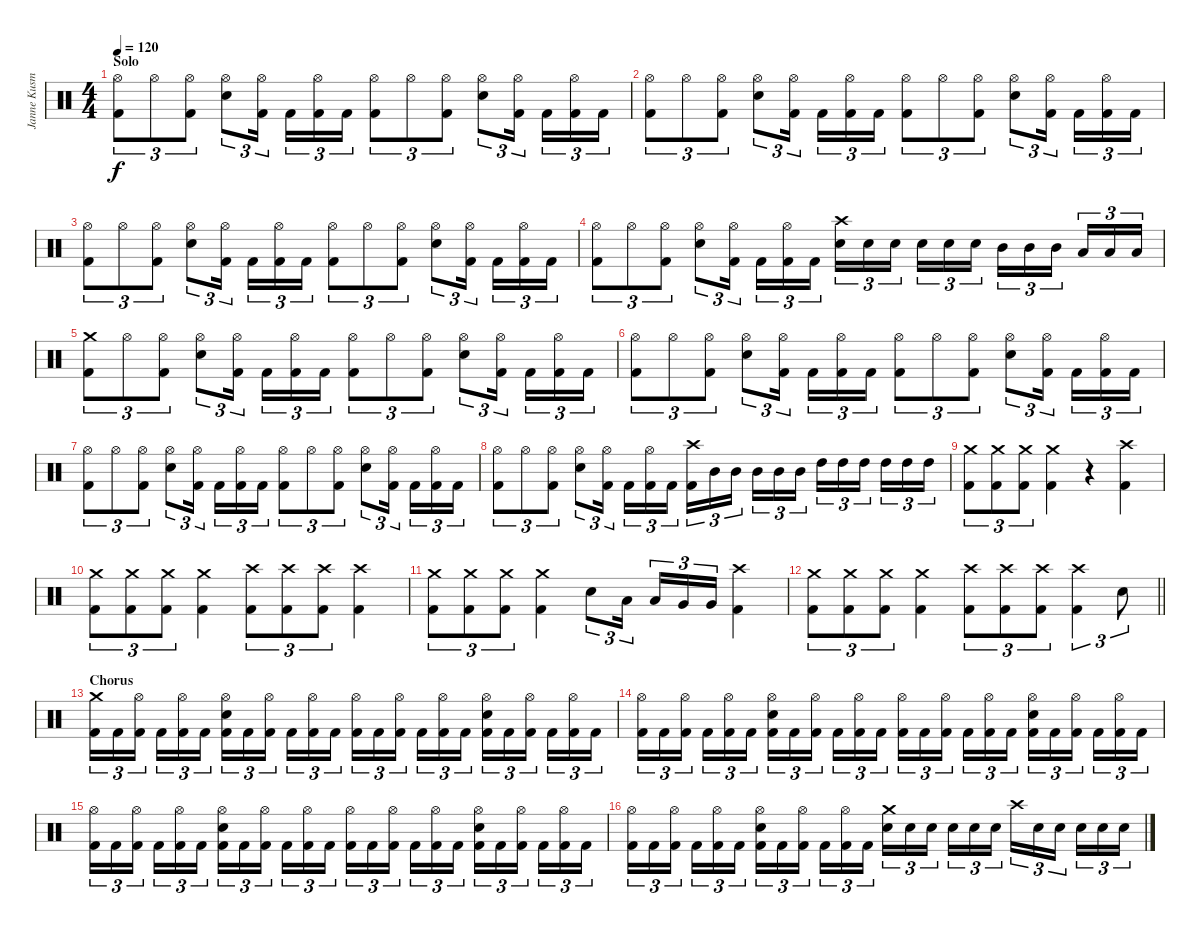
\track ("Janne Kusmin" "Janne Kusm") {instrument percussion}
\staff {score}
\articulation defaults
\ts (4 4)
\section ("" "Solo")
\tempo 120
\clef neutral
\ks c
("Hi-Hat (open)" "Kick (hit) 2").8{tu (3 2) dy f} "Hi-Hat (open)".8{tu (3 2)} ("Hi-Hat (open)" "Kick (hit) 2").8{tu (3 2)} ("Hi-Hat (open)" "Snare (hit) 2").8{tu (3 2)} ("Hi-Hat (open)" "Kick (hit) 2").16{tu (3 2) beam splitsecondary} "Kick (hit) 2".16{tu (3 2)} ("Hi-Hat (open)" "Kick (hit) 2").16{tu (3 2)} "Kick (hit) 2".16{tu (3 2)} ("Hi-Hat (open)" "Kick (hit) 2").8{tu (3 2)} "Hi-Hat (open)".8{tu (3 2)} ("Hi-Hat (open)" "Kick (hit) 2").8{tu (3 2)} ("Hi-Hat (open)" "Snare (hit) 2").8{tu (3 2)} ("Hi-Hat (open)" "Kick (hit) 2").16{tu (3 2) beam splitsecondary} "Kick (hit) 2".16{tu (3 2)} ("Hi-Hat (open)" "Kick (hit) 2").16{tu (3 2)} "Kick (hit) 2".16{tu (3 2)} |
("Hi-Hat (open)" "Kick (hit) 2").8{tu (3 2)} "Hi-Hat (open)".8{tu (3 2)} ("Hi-Hat (open)" "Kick (hit) 2").8{tu (3 2)} ("Hi-Hat (open)" "Snare (hit) 2").8{tu (3 2)} ("Hi-Hat (open)" "Kick (hit) 2").16{tu (3 2) beam splitsecondary} "Kick (hit) 2".16{tu (3 2)} ("Hi-Hat (open)" "Kick (hit) 2").16{tu (3 2)} "Kick (hit) 2".16{tu (3 2)} ("Hi-Hat (open)" "Kick (hit) 2").8{tu (3 2)} "Hi-Hat (open)".8{tu (3 2)} ("Hi-Hat (open)" "Kick (hit) 2").8{tu (3 2)} ("Hi-Hat (open)" "Snare (hit) 2").8{tu (3 2)} ("Hi-Hat (open)" "Kick (hit) 2").16{tu (3 2) beam splitsecondary} "Kick (hit) 2".16{tu (3 2)} ("Hi-Hat (open)" "Kick (hit) 2").16{tu (3 2)} "Kick (hit) 2".16{tu (3 2)} |
("Hi-Hat (open)" "Kick (hit) 2").8{tu (3 2)} "Hi-Hat (open)".8{tu (3 2)} ("Hi-Hat (open)" "Kick (hit) 2").8{tu (3 2)} ("Hi-Hat (open)" "Snare (hit) 2").8{tu (3 2)} ("Hi-Hat (open)" "Kick (hit) 2").16{tu (3 2) beam splitsecondary} "Kick (hit) 2".16{tu (3 2)} ("Hi-Hat (open)" "Kick (hit) 2").16{tu (3 2)} "Kick (hit) 2".16{tu (3 2)} ("Hi-Hat (open)" "Kick (hit) 2").8{tu (3 2)} "Hi-Hat (open)".8{tu (3 2)} ("Hi-Hat (open)" "Kick (hit) 2").8{tu (3 2)} ("Hi-Hat (open)" "Snare (hit) 2").8{tu (3 2)} ("Hi-Hat (open)" "Kick (hit) 2").16{tu (3 2) beam splitsecondary} "Kick (hit) 2".16{tu (3 2)} ("Hi-Hat (open)" "Kick (hit) 2").16{tu (3 2)} "Kick (hit) 2".16{tu (3 2)} |
("Hi-Hat (open)" "Kick (hit) 2").8{tu (3 2)} "Hi-Hat (open)".8{tu (3 2)} ("Hi-Hat (open)" "Kick (hit) 2").8{tu (3 2)} ("Hi-Hat (open)" "Snare (hit) 2").8{tu (3 2)} ("Hi-Hat (open)" "Kick (hit) 2").16{tu (3 2) beam splitsecondary} "Kick (hit) 2".16{tu (3 2)} ("Hi-Hat (open)" "Kick (hit) 2").16{tu (3 2)} "Kick (hit) 2".16{tu (3 2)} ("Crash high (hit)" "Snare (hit) 2").16{tu (3 2)} "Snare (hit) 2".16{tu (3 2)} "Snare (hit) 2".16{tu (3 2) beam splitsecondary} "Snare (hit) 2".16{tu (3 2)} "Snare (hit) 2".16{tu (3 2)} "Snare (hit) 2".16{tu (3 2)} "Mid Tom (hit)".16{tu (3 2)} "Mid Tom (hit)".16{tu (3 2)} "Mid Tom (hit)".16{tu (3 2) beam splitsecondary} "Low Tom (hit)".16{tu (3 2)} "Low Tom (hit)".16{tu (3 2)} "Low Tom (hit)".16{tu (3 2)} |
("Crash medium (hit)" "Kick (hit) 2").8{tu (3 2)} "Hi-Hat (open)".8{tu (3 2)} ("Hi-Hat (open)" "Kick (hit) 2").8{tu (3 2)} ("Hi-Hat (open)" "Snare (hit) 2").8{tu (3 2)} ("Hi-Hat (open)" "Kick (hit) 2").16{tu (3 2) beam splitsecondary} "Kick (hit) 2".16{tu (3 2)} ("Hi-Hat (open)" "Kick (hit) 2").16{tu (3 2)} "Kick (hit) 2".16{tu (3 2)} ("Hi-Hat (open)" "Kick (hit) 2").8{tu (3 2)} "Hi-Hat (open)".8{tu (3 2)} ("Hi-Hat (open)" "Kick (hit) 2").8{tu (3 2)} ("Hi-Hat (open)" "Snare (hit) 2").8{tu (3 2)} ("Hi-Hat (open)" "Kick (hit) 2").16{tu (3 2) beam splitsecondary} "Kick (hit) 2".16{tu (3 2)} ("Hi-Hat (open)" "Kick (hit) 2").16{tu (3 2)} "Kick (hit) 2".16{tu (3 2)} |
("Hi-Hat (open)" "Kick (hit) 2").8{tu (3 2)} "Hi-Hat (open)".8{tu (3 2)} ("Hi-Hat (open)" "Kick (hit) 2").8{tu (3 2)} ("Hi-Hat (open)" "Snare (hit) 2").8{tu (3 2)} ("Hi-Hat (open)" "Kick (hit) 2").16{tu (3 2) beam splitsecondary} "Kick (hit) 2".16{tu (3 2)} ("Hi-Hat (open)" "Kick (hit) 2").16{tu (3 2)} "Kick (hit) 2".16{tu (3 2)} ("Hi-Hat (open)" "Kick (hit) 2").8{tu (3 2)} "Hi-Hat (open)".8{tu (3 2)} ("Hi-Hat (open)" "Kick (hit) 2").8{tu (3 2)} ("Hi-Hat (open)" "Snare (hit) 2").8{tu (3 2)} ("Hi-Hat (open)" "Kick (hit) 2").16{tu (3 2) beam splitsecondary} "Kick (hit) 2".16{tu (3 2)} ("Hi-Hat (open)" "Kick (hit) 2").16{tu (3 2)} "Kick (hit) 2".16{tu (3 2)} |
("Hi-Hat (open)" "Kick (hit) 2").8{tu (3 2)} "Hi-Hat (open)".8{tu (3 2)} ("Hi-Hat (open)" "Kick (hit) 2").8{tu (3 2)} ("Hi-Hat (open)" "Snare (hit) 2").8{tu (3 2)} ("Hi-Hat (open)" "Kick (hit) 2").16{tu (3 2) beam splitsecondary} "Kick (hit) 2".16{tu (3 2)} ("Hi-Hat (open)" "Kick (hit) 2").16{tu (3 2)} "Kick (hit) 2".16{tu (3 2)} ("Hi-Hat (open)" "Kick (hit) 2").8{tu (3 2)} "Hi-Hat (open)".8{tu (3 2)} ("Hi-Hat (open)" "Kick (hit) 2").8{tu (3 2)} ("Hi-Hat (open)" "Snare (hit) 2").8{tu (3 2)} ("Hi-Hat (open)" "Kick (hit) 2").16{tu (3 2) beam splitsecondary} "Kick (hit) 2".16{tu (3 2)} ("Hi-Hat (open)" "Kick (hit) 2").16{tu (3 2)} "Kick (hit) 2".16{tu (3 2)} |
("Hi-Hat (open)" "Kick (hit) 2").8{tu (3 2)} "Hi-Hat (open)".8{tu (3 2)} ("Hi-Hat (open)" "Kick (hit) 2").8{tu (3 2)} ("Hi-Hat (open)" "Snare (hit) 2").8{tu (3 2)} ("Hi-Hat (open)" "Kick (hit) 2").16{tu (3 2) beam splitsecondary} "Kick (hit) 2".16{tu (3 2)} ("Hi-Hat (open)" "Kick (hit) 2").16{tu (3 2)} "Kick (hit) 2".16{tu (3 2)} ("Crash high (hit)" "Kick (hit) 2").16{tu (3 2)} "Mid Tom (hit)".16{tu (3 2)} "Mid Tom (hit)".16{tu (3 2) beam splitsecondary} "Mid Tom (hit)".16{tu (3 2)} "Mid Tom (hit)".16{tu (3 2)} "Mid Tom (hit)".16{tu (3 2)} "High Tom (hit)".16{tu (3 2)} "High Tom (hit)".16{tu (3 2)} "High Tom (hit)".16{tu (3 2) beam splitsecondary} "High Tom (hit)".16{tu (3 2)} "High Tom (hit)".16{tu (3 2)} "High Tom (hit)".16{tu (3 2)} |
("Crash medium (hit)" "Kick (hit) 2").8{tu (3 2)} ("Crash medium (hit)" "Kick (hit) 2").8{tu (3 2)} ("Crash medium (hit)" "Kick (hit) 2").8{tu (3 2)} ("Crash medium (hit)" "Kick (hit) 2").4 r.4 ("Crash high (hit)" "Kick (hit) 2").4 |
("Crash medium (hit)" "Kick (hit) 2").8{tu (3 2)} ("Crash medium (hit)" "Kick (hit) 2").8{tu (3 2)} ("Crash medium (hit)" "Kick (hit) 2").8{tu (3 2)} ("Crash medium (hit)" "Kick (hit) 2").4 ("Crash high (hit)" "Kick (hit) 2").8{tu (3 2)} ("Crash high (hit)" "Kick (hit) 2").8{tu (3 2)} ("Crash high (hit)" "Kick (hit) 2").8{tu (3 2)} ("Crash high (hit)" "Kick (hit) 2").4 |
("Crash medium (hit)" "Kick (hit) 2").8{tu (3 2)} ("Crash medium (hit)" "Kick (hit) 2").8{tu (3 2)} ("Crash medium (hit)" "Kick (hit) 2").8{tu (3 2)} ("Crash medium (hit)" "Kick (hit) 2").4 "Snare (hit) 2".8{tu (3 2)} "Low Tom (hit)".16{tu (3 2) beam splitsecondary} "Low Tom (hit)".16{tu (3 2)} "Very Low Tom (hit)".16{tu (3 2)} "Very Low Tom (hit)".16{tu (3 2)} ("Crash high (hit)" "Kick (hit) 2").4 |
\barLineRight lightlight
("Crash medium (hit)" "Kick (hit) 2").8{tu (3 2)} ("Crash medium (hit)" "Kick (hit) 2").8{tu (3 2)} ("Crash medium (hit)" "Kick (hit) 2").8{tu (3 2)} ("Crash medium (hit)" "Kick (hit) 2").4 ("Crash high (hit)" "Kick (hit) 2").8{tu (3 2)} ("Crash high (hit)" "Kick (hit) 2").8{tu (3 2)} ("Crash high (hit)" "Kick (hit) 2").8{tu (3 2)} ("Crash high (hit)" "Kick (hit) 2").4{tu (3 2)} "Snare (hit) 2".8{tu (3 2)} |
\section ("" "Chorus")
("Crash medium (hit)" "Kick (hit) 2").16{tu (3 2)} "Kick (hit) 2".16{tu (3 2)} ("Hi-Hat (open)" "Kick (hit) 2").16{tu (3 2) beam splitsecondary} "Kick (hit) 2".16{tu (3 2)} ("Hi-Hat (open)" "Kick (hit) 2").16{tu (3 2)} "Kick (hit) 2".16{tu (3 2)} ("Hi-Hat (open)" "Snare (hit) 2" "Kick (hit) 2").16{tu (3 2)} "Kick (hit) 2".16{tu (3 2)} ("Hi-Hat (open)" "Kick (hit) 2").16{tu (3 2) beam splitsecondary} "Kick (hit) 2".16{tu (3 2)} ("Hi-Hat (open)" "Kick (hit) 2").16{tu (3 2)} "Kick (hit) 2".16{tu (3 2)} ("Hi-Hat (open)" "Kick (hit) 2").16{tu (3 2)} "Kick (hit) 2".16{tu (3 2)} ("Hi-Hat (open)" "Kick (hit) 2").16{tu (3 2) beam splitsecondary} "Kick (hit) 2".16{tu (3 2)} ("Hi-Hat (open)" "Kick (hit) 2").16{tu (3 2)} "Kick (hit) 2".16{tu (3 2)} ("Hi-Hat (open)" "Snare (hit) 2" "Kick (hit) 2").16{tu (3 2)} "Kick (hit) 2".16{tu (3 2)} ("Hi-Hat (open)" "Kick (hit) 2").16{tu (3 2) beam splitsecondary} "Kick (hit) 2".16{tu (3 2)} ("Hi-Hat (open)" "Kick (hit) 2").16{tu (3 2)} "Kick (hit) 2".16{tu (3 2)} |
("Hi-Hat (open)" "Kick (hit) 2").16{tu (3 2)} "Kick (hit) 2".16{tu (3 2)} ("Hi-Hat (open)" "Kick (hit) 2").16{tu (3 2) beam splitsecondary} "Kick (hit) 2".16{tu (3 2)} ("Hi-Hat (open)" "Kick (hit) 2").16{tu (3 2)} "Kick (hit) 2".16{tu (3 2)} ("Hi-Hat (open)" "Snare (hit) 2" "Kick (hit) 2").16{tu (3 2)} "Kick (hit) 2".16{tu (3 2)} ("Hi-Hat (open)" "Kick (hit) 2").16{tu (3 2) beam splitsecondary} "Kick (hit) 2".16{tu (3 2)} ("Hi-Hat (open)" "Kick (hit) 2").16{tu (3 2)} "Kick (hit) 2".16{tu (3 2)} ("Hi-Hat (open)" "Kick (hit) 2").16{tu (3 2)} "Kick (hit) 2".16{tu (3 2)} ("Hi-Hat (open)" "Kick (hit) 2").16{tu (3 2) beam splitsecondary} "Kick (hit) 2".16{tu (3 2)} ("Hi-Hat (open)" "Kick (hit) 2").16{tu (3 2)} "Kick (hit) 2".16{tu (3 2)} ("Hi-Hat (open)" "Snare (hit) 2" "Kick (hit) 2").16{tu (3 2)} "Kick (hit) 2".16{tu (3 2)} ("Hi-Hat (open)" "Kick (hit) 2").16{tu (3 2) beam splitsecondary} "Kick (hit) 2".16{tu (3 2)} ("Hi-Hat (open)" "Kick (hit) 2").16{tu (3 2)} "Kick (hit) 2".16{tu (3 2)} |
("Hi-Hat (open)" "Kick (hit) 2").16{tu (3 2)} "Kick (hit) 2".16{tu (3 2)} ("Hi-Hat (open)" "Kick (hit) 2").16{tu (3 2) beam splitsecondary} "Kick (hit) 2".16{tu (3 2)} ("Hi-Hat (open)" "Kick (hit) 2").16{tu (3 2)} "Kick (hit) 2".16{tu (3 2)} ("Hi-Hat (open)" "Snare (hit) 2" "Kick (hit) 2").16{tu (3 2)} "Kick (hit) 2".16{tu (3 2)} ("Hi-Hat (open)" "Kick (hit) 2").16{tu (3 2) beam splitsecondary} "Kick (hit) 2".16{tu (3 2)} ("Hi-Hat (open)" "Kick (hit) 2").16{tu (3 2)} "Kick (hit) 2".16{tu (3 2)} ("Hi-Hat (open)" "Kick (hit) 2").16{tu (3 2)} "Kick (hit) 2".16{tu (3 2)} ("Hi-Hat (open)" "Kick (hit) 2").16{tu (3 2) beam splitsecondary} "Kick (hit) 2".16{tu (3 2)} ("Hi-Hat (open)" "Kick (hit) 2").16{tu (3 2)} "Kick (hit) 2".16{tu (3 2)} ("Hi-Hat (open)" "Snare (hit) 2" "Kick (hit) 2").16{tu (3 2)} "Kick (hit) 2".16{tu (3 2)} ("Hi-Hat (open)" "Kick (hit) 2").16{tu (3 2) beam splitsecondary} "Kick (hit) 2".16{tu (3 2)} ("Hi-Hat (open)" "Kick (hit) 2").16{tu (3 2)} "Kick (hit) 2".16{tu (3 2)} |
("Hi-Hat (open)" "Kick (hit) 2").16{tu (3 2)} "Kick (hit) 2".16{tu (3 2)} ("Hi-Hat (open)" "Kick (hit) 2").16{tu (3 2) beam splitsecondary} "Kick (hit) 2".16{tu (3 2)} ("Hi-Hat (open)" "Kick (hit) 2").16{tu (3 2)} "Kick (hit) 2".16{tu (3 2)} ("Hi-Hat (open)" "Snare (hit) 2" "Kick (hit) 2").16{tu (3 2)} "Kick (hit) 2".16{tu (3 2)} ("Hi-Hat (open)" "Kick (hit) 2").16{tu (3 2) beam splitsecondary} "Kick (hit) 2".16{tu (3 2)} ("Hi-Hat (open)" "Kick (hit) 2").16{tu (3 2)} "Kick (hit) 2".16{tu (3 2)} ("Crash medium (hit)" "Snare (hit) 2").16{tu (3 2)} "Snare (hit) 2".16{tu (3 2)} "Snare (hit) 2".16{tu (3 2) beam splitsecondary} "Snare (hit) 2".16{tu (3 2)} "Snare (hit) 2".16{tu (3 2)} "Snare (hit) 2".16{tu (3 2)} "Crash high (hit)".16{tu (3 2)} "Snare (hit) 2".16{tu (3 2)} "Snare (hit) 2".16{tu (3 2) beam splitsecondary} "Snare (hit) 2".16{tu (3 2)} "Snare (hit) 2".16{tu (3 2)} "Snare (hit) 2".16{tu (3 2)}
